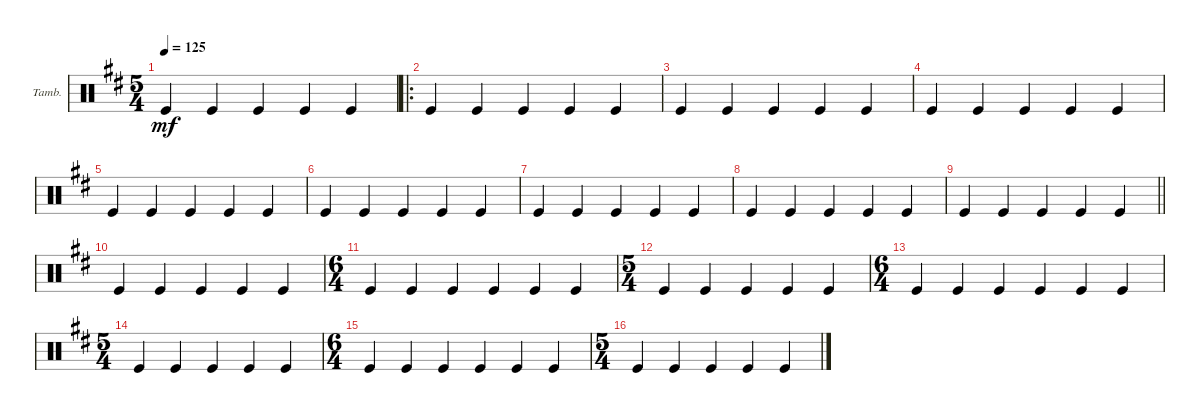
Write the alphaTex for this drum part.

\defaultSystemsLayout 4
\bracketExtendMode groupsimilarinstruments
\firstSystemTrackNameOrientation horizontal
\otherSystemsTrackNameOrientation horizontal
\track ("ЧИК-ЧИК (ШЕЙКЕР)" "Tamb.") {instrument percussion}
\staff {score}
\articulation defaults
\ts (5 4)
\tempo 125
\clef neutral
\scale
0.517241
\ks bminor "Kick (hit)".4{dy mf} "Kick (hit)".4 "Kick (hit)".4 "Kick (hit)".4 "Kick (hit)".4
|
\ro
\scale
0.241379 "Kick (hit)".4 "Kick (hit)".4 "Kick (hit)".4 "Kick (hit)".4 "Kick (hit)".4 |
\scale
0.241379 "Kick (hit)".4 "Kick (hit)".4 "Kick (hit)".4 "Kick (hit)".4 "Kick (hit)".4 |
\scale
0.333333 "Kick (hit)".4 "Kick (hit)".4 "Kick (hit)".4 "Kick (hit)".4 "Kick (hit)".4 |
\scale
0.333333 "Kick (hit)".4 "Kick (hit)".4 "Kick (hit)".4 "Kick (hit)".4 "Kick (hit)".4 |
\scale
0.333333 "Kick (hit)".4 "Kick (hit)".4 "Kick (hit)".4 "Kick (hit)".4 "Kick (hit)".4 |
"Kick (hit)".4 "Kick (hit)".4 "Kick (hit)".4 "Kick (hit)".4 "Kick (hit)".4 |
"Kick (hit)".4 "Kick (hit)".4 "Kick (hit)".4 "Kick (hit)".4 "Kick (hit)".4 |
\barLineRight lightlight "Kick (hit)".4 "Kick (hit)".4 "Kick (hit)".4 "Kick (hit)".4 "Kick (hit)".4
|
"Kick (hit)".4 "Kick (hit)".4 "Kick (hit)".4 "Kick (hit)".4 "Kick (hit)".4 |
\ts (6 4)
"Kick (hit)".4 "Kick (hit)".4 "Kick (hit)".4 "Kick (hit)".4 "Kick (hit)".4 "Kick (hit)".4 |
\ts (5 4)
"Kick (hit)".4 "Kick (hit)".4 "Kick (hit)".4 "Kick (hit)".4 "Kick (hit)".4 |
\ts (6 4)
"Kick (hit)".4 "Kick (hit)".4 "Kick (hit)".4 "Kick (hit)".4 "Kick (hit)".4 "Kick (hit)".4 |
\ts (5 4)
"Kick (hit)".4 "Kick (hit)".4 "Kick (hit)".4 "Kick (hit)".4 "Kick (hit)".4 |
\ts (6 4)
"Kick (hit)".4 "Kick (hit)".4 "Kick (hit)".4 "Kick (hit)".4 "Kick (hit)".4 "Kick (hit)".4 |
\ts (5 4)
"Kick (hit)".4 "Kick (hit)".4 "Kick (hit)".4 "Kick (hit)".4 "Kick (hit)".4
